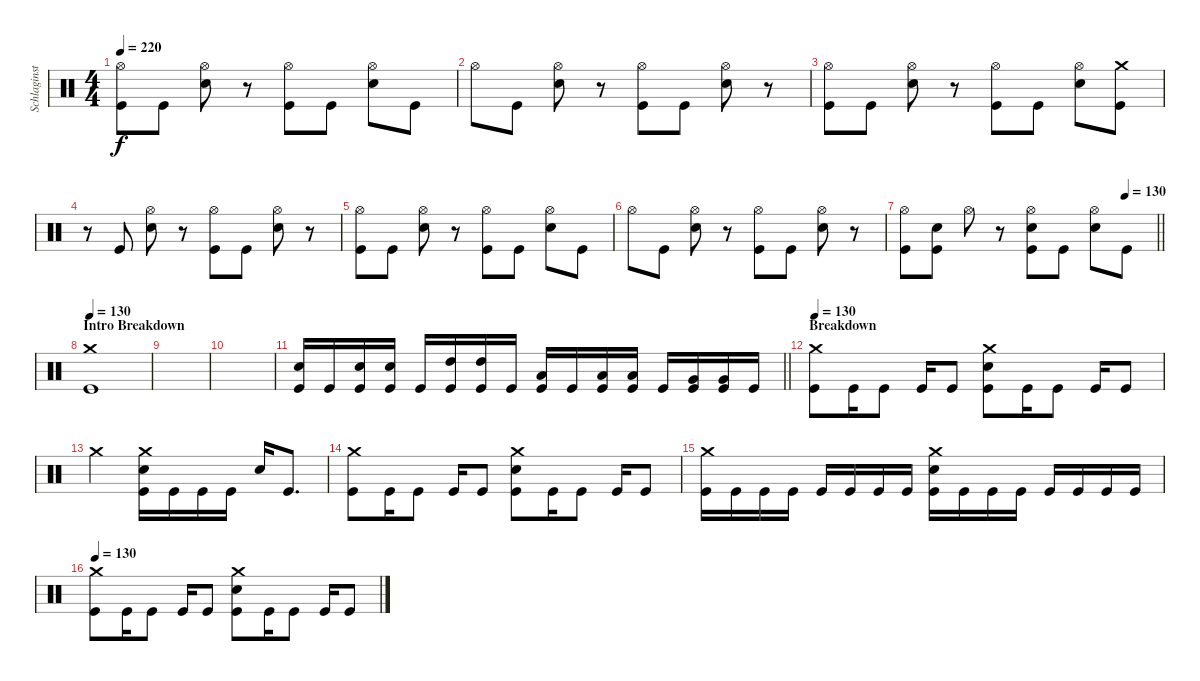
\track ("Schlaginstrumente - Auswahl" "Schlaginst") {instrument percussion}
\staff {score}
\articulation defaults
\ts (4 4)
\tempo 220
\clef neutral
\ks c
("Hi-Hat (open)" "Kick (hit)").8{dy f} "Kick (hit)".8 ("Hi-Hat (open)" "Electric Snare (hit)").8 r.8 ("Hi-Hat (open)" "Kick (hit)").8 "Kick (hit)".8 ("Hi-Hat (open)" "Electric Snare (hit)").8 "Kick (hit)".8 |
"Hi-Hat (open)".8 "Kick (hit)".8 ("Hi-Hat (open)" "Electric Snare (hit)").8 r.8 ("Hi-Hat (open)" "Kick (hit)").8 "Kick (hit)".8 ("Hi-Hat (open)" "Electric Snare (hit)").8 r.8 |
("Hi-Hat (open)" "Kick (hit)").8 "Kick (hit)".8 ("Hi-Hat (open)" "Electric Snare (hit)").8 r.8 ("Hi-Hat (open)" "Kick (hit)").8 "Kick (hit)".8 ("Hi-Hat (open)" "Electric Snare (hit)").8 ("Crash medium (hit)" "Kick (hit)").8 |
r.8 "Kick (hit)".8 ("Hi-Hat (open)" "Electric Snare (hit)").8 r.8 ("Hi-Hat (open)" "Kick (hit)").8 "Kick (hit)".8 ("Hi-Hat (open)" "Electric Snare (hit)").8 r.8 |
("Hi-Hat (open)" "Kick (hit)").8 "Kick (hit)".8 ("Hi-Hat (open)" "Electric Snare (hit)").8 r.8 ("Hi-Hat (open)" "Kick (hit)").8 "Kick (hit)".8 ("Hi-Hat (open)" "Electric Snare (hit)").8 "Kick (hit)".8 |
"Hi-Hat (open)".8 "Kick (hit)".8 ("Hi-Hat (open)" "Electric Snare (hit)").8 r.8 ("Hi-Hat (open)" "Kick (hit)").8 "Kick (hit)".8 ("Hi-Hat (open)" "Electric Snare (hit)").8 r.8 |
\tempo (130 0.875)
\barLineRight lightlight
("Hi-Hat (open)" "Kick (hit)").8 ("Electric Snare (hit)" "Kick (hit)").8 "Hi-Hat (open)".8 r.8 ("Hi-Hat (open)" "Electric Snare (hit)" "Kick (hit)").8 "Kick (hit)".8 ("Hi-Hat (open)" "Electric Snare (hit)").8 "Kick (hit)".8 |
\section ("" "Intro Breakdown")
\tempo 130
("Crash medium (hit)" "Kick (hit)").1 |
|
|
\barLineRight lightlight
("Electric Snare (hit)" "Kick (hit)").16 "Kick (hit)".16 ("Electric Snare (hit)" "Kick (hit)").16 ("Electric Snare (hit)" "Kick (hit)").16 "Kick (hit)".16 ("High Tom (hit)" "Kick (hit)").16 ("High Tom (hit)" "Kick (hit)").16 "Kick (hit)".16 ("Low Tom (hit)" "Kick (hit)").16 "Kick (hit)".16 ("Low Tom (hit)" "Kick (hit)").16 ("Low Tom (hit)" "Kick (hit)").16 "Kick (hit)".16 ("Very Low Tom (hit)" "Kick (hit)").16 ("Very Low Tom (hit)" "Kick (hit)").16 "Kick (hit)".16 |
\section ("" "Breakdown")
\tempo 130
("Crash medium (hit)" "Kick (hit)").8 "Kick (hit)".16 "Kick (hit)".8 "Kick (hit)".16 "Kick (hit)".8 ("Crash medium (hit)" "Electric Snare (hit)" "Kick (hit)").8 "Kick (hit)".16 "Kick (hit)".8 "Kick (hit)".16 "Kick (hit)".8 |
"Crash medium (hit)".2 ("Crash medium (hit)" "Electric Snare (hit)" "Kick (hit)").16 "Kick (hit)".16 "Kick (hit)".16 "Kick (hit)".16 "Electric Snare (hit)".16 "Kick (hit)".8{d} |
("Crash medium (hit)" "Kick (hit)").8 "Kick (hit)".16 "Kick (hit)".8 "Kick (hit)".16 "Kick (hit)".8 ("Crash medium (hit)" "Electric Snare (hit)" "Kick (hit)").8 "Kick (hit)".16 "Kick (hit)".8 "Kick (hit)".16 "Kick (hit)".8 |
("Crash medium (hit)" "Kick (hit)").16 "Kick (hit)".16 "Kick (hit)".16 "Kick (hit)".16 "Kick (hit)".16 "Kick (hit)".16 "Kick (hit)".16 "Kick (hit)".16 ("Crash medium (hit)" "Electric Snare (hit)" "Kick (hit)").16 "Kick (hit)".16 "Kick (hit)".16 "Kick (hit)".16 "Kick (hit)".16 "Kick (hit)".16 "Kick (hit)".16 "Kick (hit)".16 |
\tempo 130
("Crash medium (hit)" "Kick (hit)").8 "Kick (hit)".16 "Kick (hit)".8 "Kick (hit)".16 "Kick (hit)".8 ("Crash medium (hit)" "Electric Snare (hit)" "Kick (hit)").8 "Kick (hit)".16 "Kick (hit)".8 "Kick (hit)".16 "Kick (hit)".8
